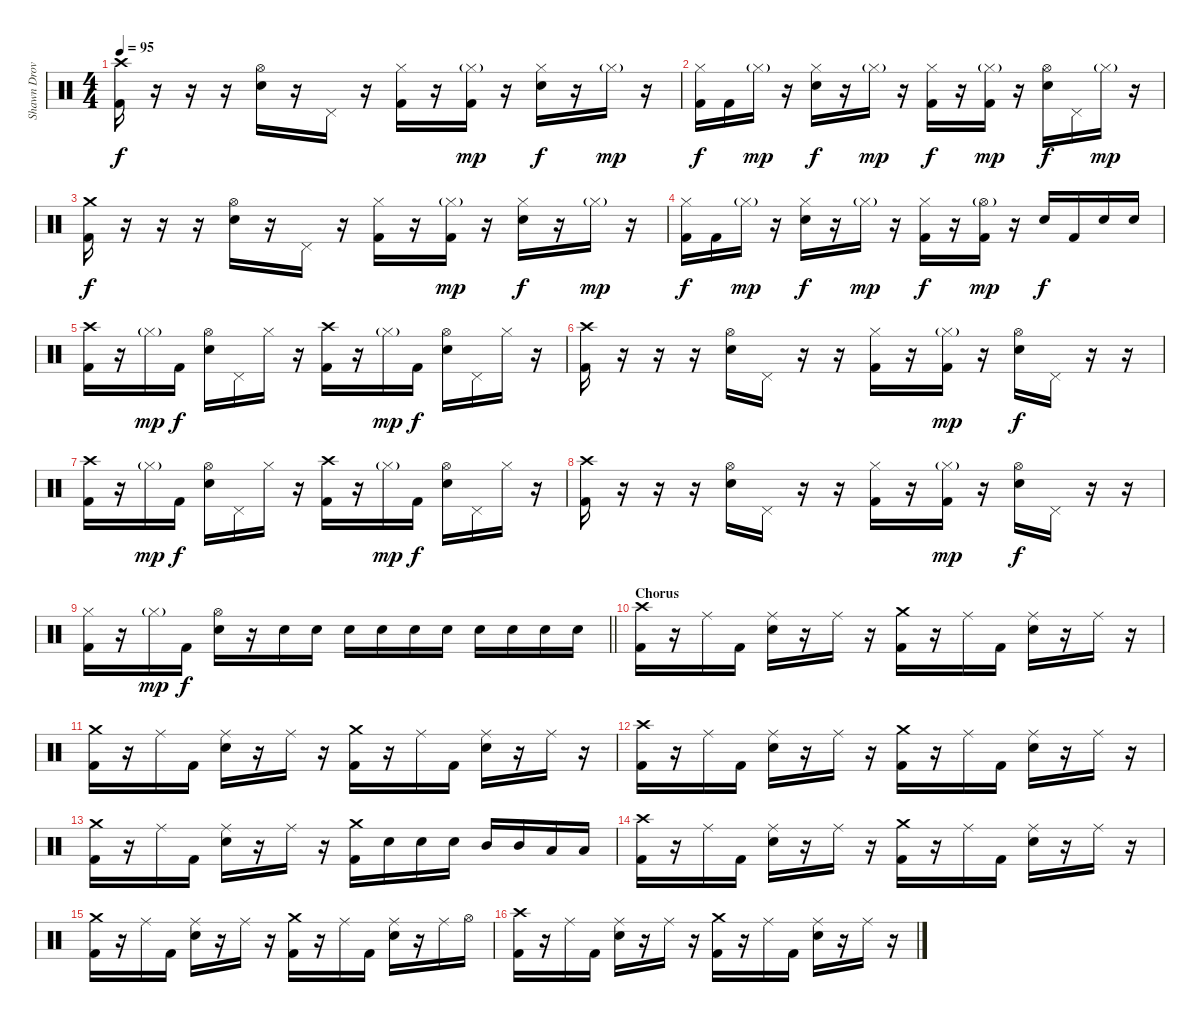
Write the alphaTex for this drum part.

\track ("Shawn Drover" "Shawn Drov") {instrument percussion}
\staff {score}
\articulation defaults
\ts (4 4)
\tempo 95
\clef neutral
\ks c
("Crash high (hit)" "Kick (hit) 2").16{dy f} r.16 r.16 r.16 ("Hi-Hat (open)" "Snare (hit) 2").16 r.16 "Pedal Hi-Hat (hit)".16 r.16 ("Hi-Hat (closed)" "Kick (hit) 2").16 r.16 ("Hi-Hat (closed)"{g} "Kick (hit) 2").16{dy mp} r.16 ("Hi-Hat (closed)" "Snare (hit) 2").16{dy f} r.16 "Hi-Hat (closed)"{g}.16{dy mp} r.16 |
("Hi-Hat (closed)" "Kick (hit) 2").16{dy f} "Kick (hit) 2".16 "Hi-Hat (closed)"{g}.16{dy mp} r.16 ("Hi-Hat (closed)" "Snare (hit) 2").16{dy f} r.16 "Hi-Hat (closed)"{g}.16{dy mp} r.16 ("Hi-Hat (closed)" "Kick (hit) 2").16{dy f} r.16 ("Hi-Hat (closed)"{g} "Kick (hit) 2").16{dy mp} r.16 ("Hi-Hat (open)" "Snare (hit) 2").16{dy f} "Pedal Hi-Hat (hit)".16 "Hi-Hat (closed)"{g}.16{dy mp} r.16 |
("Crash medium (hit)" "Kick (hit) 2").16{dy f} r.16 r.16 r.16 ("Hi-Hat (open)" "Snare (hit) 2").16 r.16 "Pedal Hi-Hat (hit)".16 r.16 ("Hi-Hat (closed)" "Kick (hit) 2").16 r.16 ("Hi-Hat (closed)"{g} "Kick (hit) 2").16{dy mp} r.16 ("Hi-Hat (closed)" "Snare (hit) 2").16{dy f} r.16 "Hi-Hat (closed)"{g}.16{dy mp} r.16 |
("Hi-Hat (closed)" "Kick (hit) 2").16{dy f} "Kick (hit) 2".16 "Hi-Hat (closed)"{g}.16{dy mp} r.16 ("Hi-Hat (closed)" "Snare (hit) 2").16{dy f} r.16 "Hi-Hat (closed)"{g}.16{dy mp} r.16 ("Hi-Hat (closed)" "Kick (hit) 2").16{dy f} r.16 ("Hi-Hat (open)"{g} "Kick (hit) 2").16{dy mp} r.16 "Snare (hit) 2".16{dy f} "Kick (hit) 2".16 "Snare (hit) 2".16 "Snare (hit) 2".16 |
("Crash high (hit)" "Kick (hit) 2").16 r.16 "Hi-Hat (closed)"{g}.16{dy mp} "Kick (hit) 2".16{dy f} ("Hi-Hat (open)" "Snare (hit) 2").16 "Pedal Hi-Hat (hit)".16 "Hi-Hat (closed)".16 r.16 ("Crash high (hit)" "Kick (hit) 2").16 r.16 "Hi-Hat (closed)"{g}.16{dy mp} "Kick (hit) 2".16{dy f} ("Hi-Hat (open)" "Snare (hit) 2").16 "Pedal Hi-Hat (hit)".16 "Hi-Hat (closed)".16 r.16 |
("Crash high (hit)" "Kick (hit) 2").16 r.16 r.16 r.16 ("Hi-Hat (open)" "Snare (hit) 2").16 "Pedal Hi-Hat (hit)".16 r.16 r.16 ("Hi-Hat (closed)" "Kick (hit) 2").16 r.16 ("Hi-Hat (closed)"{g} "Kick (hit) 2").16{dy mp} r.16 ("Hi-Hat (open)" "Snare (hit) 2").16{dy f} "Pedal Hi-Hat (hit)".16 r.16 r.16 |
("Crash high (hit)" "Kick (hit) 2").16 r.16 "Hi-Hat (closed)"{g}.16{dy mp} "Kick (hit) 2".16{dy f} ("Hi-Hat (open)" "Snare (hit) 2").16 "Pedal Hi-Hat (hit)".16 "Hi-Hat (closed)".16 r.16 ("Crash high (hit)" "Kick (hit) 2").16 r.16 "Hi-Hat (closed)"{g}.16{dy mp} "Kick (hit) 2".16{dy f} ("Hi-Hat (open)" "Snare (hit) 2").16 "Pedal Hi-Hat (hit)".16 "Hi-Hat (closed)".16 r.16 |
("Crash high (hit)" "Kick (hit) 2").16 r.16 r.16 r.16 ("Hi-Hat (open)" "Snare (hit) 2").16 "Pedal Hi-Hat (hit)".16 r.16 r.16 ("Hi-Hat (closed)" "Kick (hit) 2").16 r.16 ("Hi-Hat (closed)"{g} "Kick (hit) 2").16{dy mp} r.16 ("Hi-Hat (open)" "Snare (hit) 2").16{dy f} "Pedal Hi-Hat (hit)".16 r.16 r.16 |
\barLineRight lightlight
("Hi-Hat (closed)" "Kick (hit) 2").16 r.16 "Hi-Hat (closed)"{g}.16{dy mp} "Kick (hit) 2".16{dy f} ("Hi-Hat (open)" "Snare (hit) 2").16 r.16 "Snare (hit) 2".16 "Snare (hit) 2".16 "Snare (hit) 2".16 "Snare (hit) 2".16 "Snare (hit) 2".16 "Snare (hit) 2".16 "Snare (hit) 2".16 "Snare (hit) 2".16 "Snare (hit) 2".16 "Snare (hit) 2".16 |
\section ("" "Chorus")
("Crash high (hit)" "Kick (hit) 2").16 r.16 "Ride (middle)".16 "Kick (hit) 2".16 ("Ride (middle)" "Snare (hit) 2").16 r.16 "Ride (middle)".16 r.16 ("Crash medium (hit)" "Kick (hit) 2").16 r.16 "Ride (middle)".16 "Kick (hit) 2".16 ("Ride (middle)" "Snare (hit) 2").16 r.16 "Ride (middle)".16 r.16 |
("Crash medium (hit)" "Kick (hit) 2").16 r.16 "Ride (middle)".16 "Kick (hit) 2".16 ("Ride (middle)" "Snare (hit) 2").16 r.16 "Ride (middle)".16 r.16 ("Crash medium (hit)" "Kick (hit) 2").16 r.16 "Ride (middle)".16 "Kick (hit) 2".16 ("Ride (middle)" "Snare (hit) 2").16 r.16 "Ride (middle)".16 r.16 |
("Crash high (hit)" "Kick (hit) 2").16 r.16 "Ride (middle)".16 "Kick (hit) 2".16 ("Ride (middle)" "Snare (hit) 2").16 r.16 "Ride (middle)".16 r.16 ("Crash medium (hit)" "Kick (hit) 2").16 r.16 "Ride (middle)".16 "Kick (hit) 2".16 ("Ride (middle)" "Snare (hit) 2").16 r.16 "Ride (middle)".16 r.16 |
("Crash medium (hit)" "Kick (hit) 2").16 r.16 "Ride (middle)".16 "Kick (hit) 2".16 ("Ride (middle)" "Snare (hit) 2").16 r.16 "Ride (middle)".16 r.16 ("Crash medium (hit)" "Kick (hit) 2").16 "Snare (hit) 2".16 "Snare (hit) 2".16 "Snare (hit) 2".16 "Mid Tom (hit)".16 "Mid Tom (hit)".16 "Low Tom (hit)".16 "Low Tom (hit)".16 |
("Crash high (hit)" "Kick (hit) 2").16 r.16 "Ride (middle)".16 "Kick (hit) 2".16 ("Ride (middle)" "Snare (hit) 2").16 r.16 "Ride (middle)".16 r.16 ("Crash medium (hit)" "Kick (hit) 2").16 r.16 "Ride (middle)".16 "Kick (hit) 2".16 ("Ride (middle)" "Snare (hit) 2").16 r.16 "Ride (middle)".16 r.16 |
("Crash medium (hit)" "Kick (hit) 2").16 r.16 "Ride (middle)".16 "Kick (hit) 2".16 ("Ride (middle)" "Snare (hit) 2").16 r.16 "Ride (middle)".16 r.16 ("Crash medium (hit)" "Kick (hit) 2").16 r.16 "Ride (middle)".16 "Kick (hit) 2".16 ("Ride (middle)" "Snare (hit) 2").16 r.16 "Ride (middle)".16 "Hi-Hat (open)".16 |
("Crash high (hit)" "Kick (hit) 2").16 r.16 "Ride (middle)".16 "Kick (hit) 2".16 ("Ride (middle)" "Snare (hit) 2").16 r.16 "Ride (middle)".16 r.16 ("Crash medium (hit)" "Kick (hit) 2").16 r.16 "Ride (middle)".16 "Kick (hit) 2".16 ("Ride (middle)" "Snare (hit) 2").16 r.16 "Ride (middle)".16 r.16
